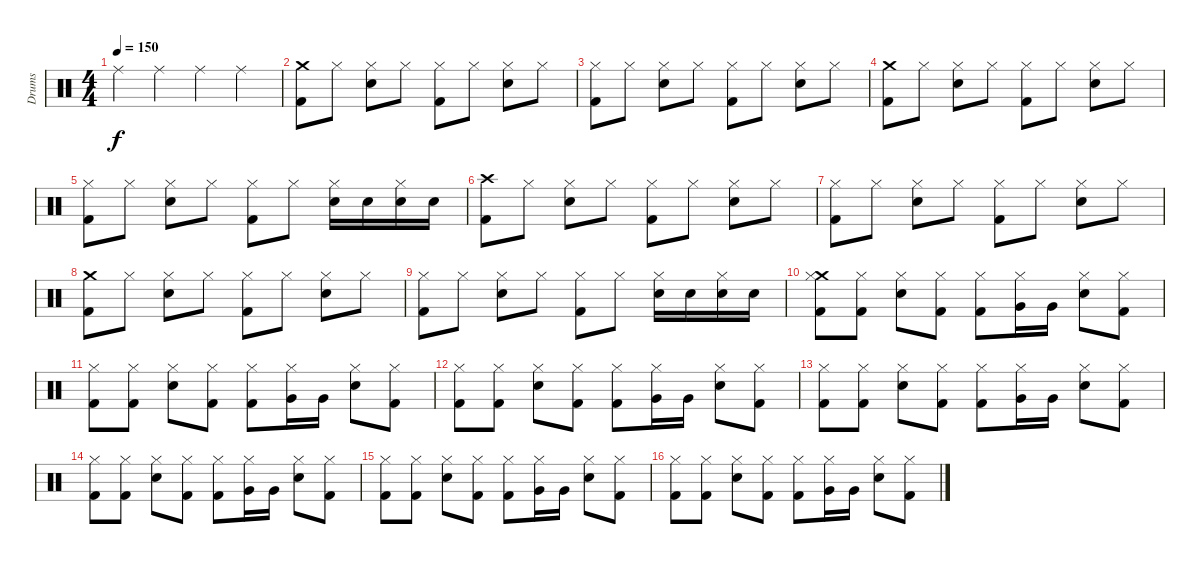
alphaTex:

\track ("Drums" "Drums") {instrument percussion}
\staff {score}
\articulation defaults
\ts (4 4)
\tempo 150
\clef neutral
\ks c "Ride (middle)".4{dy f} "Ride (middle)".4 "Ride (middle)".4 "Ride (middle)".4
|
("Crash medium (hit)" "Kick (hit) 2").8 "Hi-Hat (closed)".8 ("Hi-Hat (closed)" "Snare (hit) 2").8 "Hi-Hat (closed)".8 ("Hi-Hat (closed)" "Kick (hit) 2").8 "Hi-Hat (closed)".8 ("Hi-Hat (closed)" "Snare (hit) 2").8 "Hi-Hat (closed)".8 |
("Hi-Hat (closed)" "Kick (hit) 2").8 "Hi-Hat (closed)".8 ("Hi-Hat (closed)" "Snare (hit) 2").8 "Hi-Hat (closed)".8 ("Hi-Hat (closed)" "Kick (hit) 2").8 "Hi-Hat (closed)".8 ("Hi-Hat (closed)" "Snare (hit) 2").8 "Hi-Hat (closed)".8 |
("Crash medium (hit)" "Kick (hit) 2").8 "Hi-Hat (closed)".8 ("Hi-Hat (closed)" "Snare (hit) 2").8 "Hi-Hat (closed)".8 ("Hi-Hat (closed)" "Kick (hit) 2").8 "Hi-Hat (closed)".8 ("Hi-Hat (closed)" "Snare (hit) 2").8 "Hi-Hat (closed)".8 |
("Hi-Hat (closed)" "Kick (hit) 2").8 "Hi-Hat (closed)".8 ("Hi-Hat (closed)" "Snare (hit) 2").8 "Hi-Hat (closed)".8 ("Hi-Hat (closed)" "Kick (hit) 2").8 "Hi-Hat (closed)".8 ("Snare (hit) 2" "Hi-Hat (closed)").16 "Snare (hit) 2".16 ("Snare (hit) 2" "Hi-Hat (closed)").16 "Snare (hit) 2".16 |
("Crash high (hit)" "Kick (hit) 2").8 "Hi-Hat (closed)".8 ("Hi-Hat (closed)" "Snare (hit) 2").8 "Hi-Hat (closed)".8 ("Hi-Hat (closed)" "Kick (hit) 2").8 "Hi-Hat (closed)".8 ("Hi-Hat (closed)" "Snare (hit) 2").8 "Hi-Hat (closed)".8 |
("Hi-Hat (closed)" "Kick (hit) 2").8 "Hi-Hat (closed)".8 ("Hi-Hat (closed)" "Snare (hit) 2").8 "Hi-Hat (closed)".8 ("Hi-Hat (closed)" "Kick (hit) 2").8 "Hi-Hat (closed)".8 ("Hi-Hat (closed)" "Snare (hit) 2").8 "Hi-Hat (closed)".8 |
("Crash medium (hit)" "Kick (hit) 2").8 "Hi-Hat (closed)".8 ("Hi-Hat (closed)" "Snare (hit) 2").8 "Hi-Hat (closed)".8 ("Hi-Hat (closed)" "Kick (hit) 2").8 "Hi-Hat (closed)".8 ("Hi-Hat (closed)" "Snare (hit) 2").8 "Hi-Hat (closed)".8 |
("Hi-Hat (closed)" "Kick (hit) 2").8 "Hi-Hat (closed)".8 ("Hi-Hat (closed)" "Snare (hit) 2").8 "Hi-Hat (closed)".8 ("Hi-Hat (closed)" "Kick (hit) 2").8 "Hi-Hat (closed)".8 ("Snare (hit) 2" "Hi-Hat (closed)").16 "Snare (hit) 2".16 ("Snare (hit) 2" "Hi-Hat (closed)").16 "Snare (hit) 2".16 |
("Crash medium (hit)" "Hi-Hat (closed)" "Kick (hit) 2").8 ("Hi-Hat (closed)" "Kick (hit) 2").8 ("Hi-Hat (closed)" "Snare (hit) 2").8 ("Hi-Hat (closed)" "Kick (hit) 2").8 ("Hi-Hat (closed)" "Kick (hit) 2").8 ("Hi-Hat (closed)" "Very Low Tom (hit)").16 "Very Low Tom (hit)".16 ("Hi-Hat (closed)" "Snare (hit) 2").8 ("Hi-Hat (closed)" "Kick (hit) 2").8 |
("Hi-Hat (closed)" "Kick (hit) 2").8 ("Hi-Hat (closed)" "Kick (hit) 2").8 ("Hi-Hat (closed)" "Snare (hit) 2").8 ("Hi-Hat (closed)" "Kick (hit) 2").8 ("Hi-Hat (closed)" "Kick (hit) 2").8 ("Hi-Hat (closed)" "Very Low Tom (hit)").16 "Very Low Tom (hit)".16 ("Hi-Hat (closed)" "Snare (hit) 2").8 ("Hi-Hat (closed)" "Kick (hit) 2").8 |
("Hi-Hat (closed)" "Kick (hit) 2").8 ("Hi-Hat (closed)" "Kick (hit) 2").8 ("Hi-Hat (closed)" "Snare (hit) 2").8 ("Hi-Hat (closed)" "Kick (hit) 2").8 ("Hi-Hat (closed)" "Kick (hit) 2").8 ("Hi-Hat (closed)" "Very Low Tom (hit)").16 "Very Low Tom (hit)".16 ("Hi-Hat (closed)" "Snare (hit) 2").8 ("Hi-Hat (closed)" "Kick (hit) 2").8 |
("Hi-Hat (closed)" "Kick (hit) 2").8 ("Hi-Hat (closed)" "Kick (hit) 2").8 ("Hi-Hat (closed)" "Snare (hit) 2").8 ("Hi-Hat (closed)" "Kick (hit) 2").8 ("Hi-Hat (closed)" "Kick (hit) 2").8 ("Hi-Hat (closed)" "Very Low Tom (hit)").16 "Very Low Tom (hit)".16 ("Hi-Hat (closed)" "Snare (hit) 2").8 ("Hi-Hat (closed)" "Kick (hit) 2").8 |
("Hi-Hat (closed)" "Kick (hit) 2").8 ("Hi-Hat (closed)" "Kick (hit) 2").8 ("Hi-Hat (closed)" "Snare (hit) 2").8 ("Hi-Hat (closed)" "Kick (hit) 2").8 ("Hi-Hat (closed)" "Kick (hit) 2").8 ("Hi-Hat (closed)" "Very Low Tom (hit)").16 "Very Low Tom (hit)".16 ("Hi-Hat (closed)" "Snare (hit) 2").8 ("Hi-Hat (closed)" "Kick (hit) 2").8 |
("Hi-Hat (closed)" "Kick (hit) 2").8 ("Hi-Hat (closed)" "Kick (hit) 2").8 ("Hi-Hat (closed)" "Snare (hit) 2").8 ("Hi-Hat (closed)" "Kick (hit) 2").8 ("Hi-Hat (closed)" "Kick (hit) 2").8 ("Hi-Hat (closed)" "Very Low Tom (hit)").16 "Very Low Tom (hit)".16 ("Hi-Hat (closed)" "Snare (hit) 2").8 ("Hi-Hat (closed)" "Kick (hit) 2").8 |
("Hi-Hat (closed)" "Kick (hit) 2").8 ("Hi-Hat (closed)" "Kick (hit) 2").8 ("Hi-Hat (closed)" "Snare (hit) 2").8 ("Hi-Hat (closed)" "Kick (hit) 2").8 ("Hi-Hat (closed)" "Kick (hit) 2").8 ("Hi-Hat (closed)" "Very Low Tom (hit)").16 "Very Low Tom (hit)".16 ("Hi-Hat (closed)" "Snare (hit) 2").8 ("Hi-Hat (closed)" "Kick (hit) 2").8
